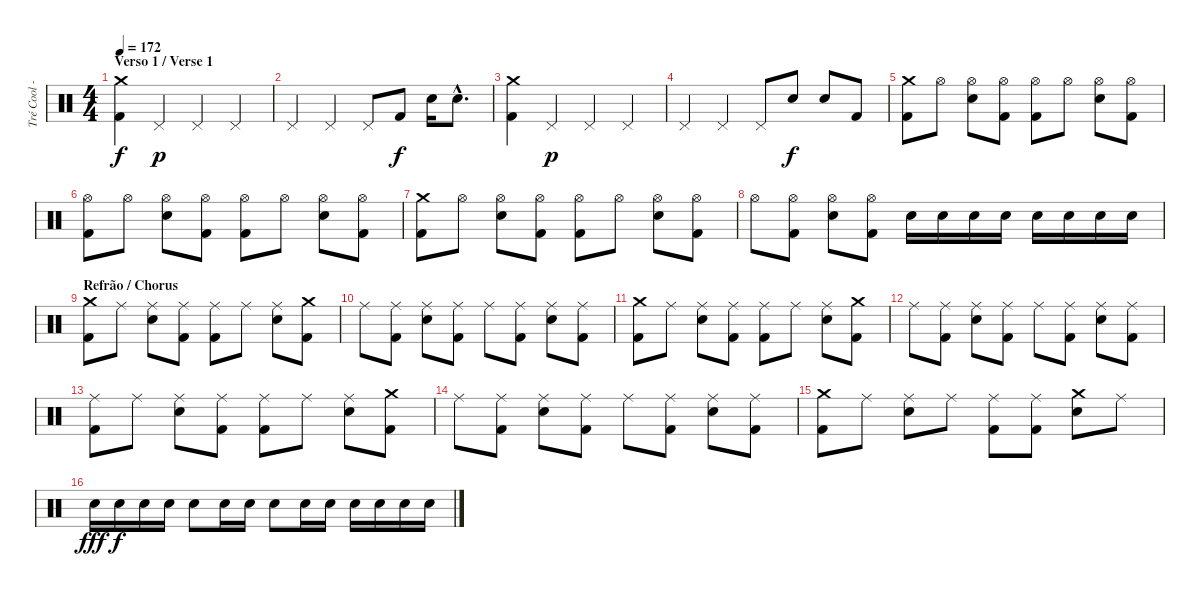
\track ("Tré Cool - Bateria / Drums" "Tré Cool -") {instrument percussion}
\staff {score}
\articulation defaults
\ts (4 4)
\section ("" "Verso 1 / Verse 1")
\tempo 172
\clef neutral
\ks c
("Crash medium (hit)" "Kick (hit) 2").4{dy f} "Pedal Hi-Hat (hit)".4{dy p} "Pedal Hi-Hat (hit)".4 "Pedal Hi-Hat (hit)".4 |
"Pedal Hi-Hat (hit)".4 "Pedal Hi-Hat (hit)".4 "Pedal Hi-Hat (hit)".8 "Kick (hit) 2".8{dy f} "Electric Snare (hit)".16 "Electric Snare (hit)"{hac}.8{d} |
("Crash medium (hit)" "Kick (hit) 2").4 "Pedal Hi-Hat (hit)".4{dy p} "Pedal Hi-Hat (hit)".4 "Pedal Hi-Hat (hit)".4 |
"Pedal Hi-Hat (hit)".4 "Pedal Hi-Hat (hit)".4 "Pedal Hi-Hat (hit)".8 "Electric Snare (hit)".8{dy f} "Electric Snare (hit)".8 "Kick (hit) 2".8 |
("Crash medium (hit)" "Kick (hit) 2").8 "Hi-Hat (open)".8 ("Hi-Hat (open)" "Electric Snare (hit)").8 ("Hi-Hat (open)" "Kick (hit) 2").8 ("Hi-Hat (open)" "Kick (hit) 2").8 "Hi-Hat (open)".8 ("Hi-Hat (open)" "Electric Snare (hit)").8 ("Hi-Hat (open)" "Kick (hit) 2").8 |
("Hi-Hat (open)" "Kick (hit) 2").8 "Hi-Hat (open)".8 ("Hi-Hat (open)" "Electric Snare (hit)").8 ("Hi-Hat (open)" "Kick (hit) 2").8 ("Hi-Hat (open)" "Kick (hit) 2").8 "Hi-Hat (open)".8 ("Hi-Hat (open)" "Electric Snare (hit)").8 ("Hi-Hat (open)" "Kick (hit) 2").8 |
("Crash medium (hit)" "Kick (hit) 2").8 "Hi-Hat (open)".8 ("Hi-Hat (open)" "Electric Snare (hit)").8 ("Hi-Hat (open)" "Kick (hit) 2").8 ("Hi-Hat (open)" "Kick (hit) 2").8 "Hi-Hat (open)".8 ("Hi-Hat (open)" "Electric Snare (hit)").8 ("Hi-Hat (open)" "Kick (hit) 2").8 |
"Hi-Hat (open)".8 ("Hi-Hat (open)" "Kick (hit) 2").8 ("Hi-Hat (open)" "Electric Snare (hit)").8 ("Hi-Hat (open)" "Kick (hit) 2").8 "Electric Snare (hit)".16 "Electric Snare (hit)".16 "Electric Snare (hit)".16 "Electric Snare (hit)".16 "Electric Snare (hit)".16 "Electric Snare (hit)".16 "Electric Snare (hit)".16 "Electric Snare (hit)".16 |
\section ("" "Refrão / Chorus")
("Crash medium (hit)" "Kick (hit) 2").8 "Ride (middle)".8 ("Ride (middle)" "Electric Snare (hit)").8 ("Ride (middle)" "Kick (hit) 2").8 ("Ride (middle)" "Kick (hit) 2").8 "Ride (middle)".8 ("Ride (middle)" "Electric Snare (hit)").8 ("Crash medium (hit)" "Kick (hit) 2").8 |
"Ride (middle)".8 ("Ride (middle)" "Kick (hit) 2").8 ("Ride (middle)" "Electric Snare (hit)").8 ("Ride (middle)" "Kick (hit) 2").8 "Ride (middle)".8 ("Ride (middle)" "Kick (hit) 2").8 ("Ride (middle)" "Electric Snare (hit)").8 ("Ride (middle)" "Kick (hit) 2").8 |
("Crash medium (hit)" "Kick (hit) 2").8 "Ride (middle)".8 ("Ride (middle)" "Electric Snare (hit)").8 ("Ride (middle)" "Kick (hit) 2").8 ("Ride (middle)" "Kick (hit) 2").8 "Ride (middle)".8 ("Ride (middle)" "Electric Snare (hit)").8 ("Crash medium (hit)" "Kick (hit) 2").8 |
"Ride (middle)".8 ("Ride (middle)" "Kick (hit) 2").8 ("Ride (middle)" "Electric Snare (hit)").8 ("Ride (middle)" "Kick (hit) 2").8 "Ride (middle)".8 ("Ride (middle)" "Kick (hit) 2").8 ("Ride (middle)" "Electric Snare (hit)").8 ("Ride (middle)" "Kick (hit) 2").8 |
("Ride (middle)" "Kick (hit) 2").8 "Ride (middle)".8 ("Ride (middle)" "Electric Snare (hit)").8 ("Ride (middle)" "Kick (hit) 2").8 ("Ride (middle)" "Kick (hit) 2").8 "Ride (middle)".8 ("Ride (middle)" "Electric Snare (hit)").8 ("Crash medium (hit)" "Kick (hit) 2").8 |
"Ride (middle)".8 ("Ride (middle)" "Kick (hit) 2").8 ("Ride (middle)" "Electric Snare (hit)").8 ("Ride (middle)" "Kick (hit) 2").8 "Ride (middle)".8 ("Ride (middle)" "Kick (hit) 2").8 ("Ride (middle)" "Electric Snare (hit)").8 ("Ride (middle)" "Kick (hit) 2").8 |
("Crash medium (hit)" "Kick (hit) 2").8 "Ride (middle)".8 ("Ride (middle)" "Electric Snare (hit)").8 "Ride (middle)".8 ("Ride (middle)" "Kick (hit) 2").8 ("Ride (middle)" "Kick (hit) 2").8 ("Crash medium (hit)" "Electric Snare (hit)").8 "Ride (middle)".8 |
"Electric Snare (hit)".16{dy fff} "Electric Snare (hit)".16{dy f} "Electric Snare (hit)".16 "Electric Snare (hit)".16 "Electric Snare (hit)".8 "Electric Snare (hit)".16 "Electric Snare (hit)".16 "Electric Snare (hit)".8 "Electric Snare (hit)".16 "Electric Snare (hit)".16 "Electric Snare (hit)".16 "Electric Snare (hit)".16 "Electric Snare (hit)".16 "Electric Snare (hit)".16
